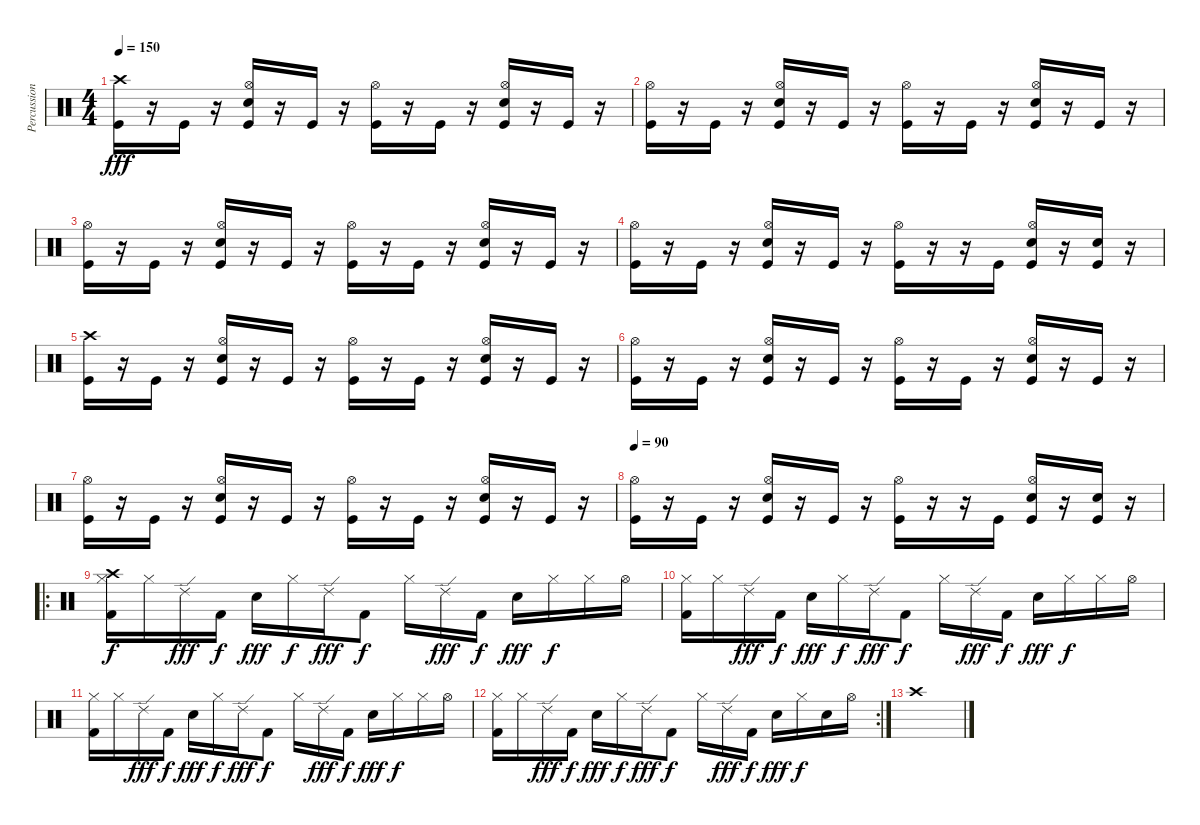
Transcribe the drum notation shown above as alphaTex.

\track ("Percussion" "Percussion") {instrument percussion}
\staff {score}
\articulation defaults
\ts (4 4)
\tempo 150
\clef neutral
\ks c
("Crash high (hit)" "Kick (hit)").16{dy fff} r.16 "Kick (hit)".16 r.16 ("Hi-Hat (open)" "Snare (hit) 2" "Kick (hit)").16 r.16 "Kick (hit)".16 r.16 ("Hi-Hat (open)" "Kick (hit)").16 r.16 "Kick (hit)".16 r.16 ("Hi-Hat (open)" "Snare (hit) 2" "Kick (hit)").16 r.16 "Kick (hit)".16 r.16 |
("Hi-Hat (open)" "Kick (hit)").16 r.16 "Kick (hit)".16 r.16 ("Hi-Hat (open)" "Snare (hit) 2" "Kick (hit)").16 r.16 "Kick (hit)".16 r.16 ("Hi-Hat (open)" "Kick (hit)").16 r.16 "Kick (hit)".16 r.16 ("Hi-Hat (open)" "Snare (hit) 2" "Kick (hit)").16 r.16 "Kick (hit)".16 r.16 |
("Hi-Hat (open)" "Kick (hit)").16 r.16 "Kick (hit)".16 r.16 ("Hi-Hat (open)" "Snare (hit) 2" "Kick (hit)").16 r.16 "Kick (hit)".16 r.16 ("Hi-Hat (open)" "Kick (hit)").16 r.16 "Kick (hit)".16 r.16 ("Hi-Hat (open)" "Snare (hit) 2" "Kick (hit)").16 r.16 "Kick (hit)".16 r.16 |
("Hi-Hat (open)" "Kick (hit)").16 r.16 "Kick (hit)".16 r.16 ("Hi-Hat (open)" "Snare (hit) 2" "Kick (hit)").16 r.16 "Kick (hit)".16 r.16 ("Hi-Hat (open)" "Kick (hit)").16 r.16 r.16 "Kick (hit)".16 ("Hi-Hat (open)" "Snare (hit) 2" "Kick (hit)").16 r.16 ("Snare (hit) 2" "Kick (hit)").16 r.16 |
("Crash high (hit)" "Kick (hit)").16 r.16 "Kick (hit)".16 r.16 ("Hi-Hat (open)" "Snare (hit) 2" "Kick (hit)").16 r.16 "Kick (hit)".16 r.16 ("Hi-Hat (open)" "Kick (hit)").16 r.16 "Kick (hit)".16 r.16 ("Hi-Hat (open)" "Snare (hit) 2" "Kick (hit)").16 r.16 "Kick (hit)".16 r.16 |
("Hi-Hat (open)" "Kick (hit)").16 r.16 "Kick (hit)".16 r.16 ("Hi-Hat (open)" "Snare (hit) 2" "Kick (hit)").16 r.16 "Kick (hit)".16 r.16 ("Hi-Hat (open)" "Kick (hit)").16 r.16 "Kick (hit)".16 r.16 ("Hi-Hat (open)" "Snare (hit) 2" "Kick (hit)").16 r.16 "Kick (hit)".16 r.16 |
("Hi-Hat (open)" "Kick (hit)").16 r.16 "Kick (hit)".16 r.16 ("Hi-Hat (open)" "Snare (hit) 2" "Kick (hit)").16 r.16 "Kick (hit)".16 r.16 ("Hi-Hat (open)" "Kick (hit)").16 r.16 "Kick (hit)".16 r.16 ("Hi-Hat (open)" "Snare (hit) 2" "Kick (hit)").16 r.16 "Kick (hit)".16 r.16 |
\tempo 90
("Hi-Hat (open)" "Kick (hit)").16 r.16 "Kick (hit)".16 r.16 ("Hi-Hat (open)" "Snare (hit) 2" "Kick (hit)").16 r.16 "Kick (hit)".16 r.16 ("Hi-Hat (open)" "Kick (hit)").16 r.16 r.16 "Kick (hit)".16 ("Hi-Hat (open)" "Snare (hit) 2" "Kick (hit)").16 r.16 ("Snare (hit) 2" "Kick (hit)").16 r.16 |
\ro
("Hi-Hat (closed)" "Kick (hit) 2" "Crash high (hit)").16{dy f} "Hi-Hat (closed)".16 "Ride (edge) 2".16{dy fff} "Kick (hit) 2".16{dy f} "Snare (hit) 2".16{dy fff} "Hi-Hat (closed)".16{dy f} "Ride (edge) 2".16{dy fff} "Kick (hit) 2".8{dy f} "Hi-Hat (closed)".16 "Ride (edge) 2".16{dy fff} "Kick (hit) 2".16{dy f} "Snare (hit) 2".16{dy fff} "Hi-Hat (closed)".16{dy f} "Hi-Hat (closed)".16 "Hi-Hat (open)".16 |
("Hi-Hat (closed)" "Kick (hit) 2").16 "Hi-Hat (closed)".16 "Ride (edge) 2".16{dy fff} "Kick (hit) 2".16{dy f} "Snare (hit) 2".16{dy fff} "Hi-Hat (closed)".16{dy f} "Ride (edge) 2".16{dy fff} "Kick (hit) 2".8{dy f} "Hi-Hat (closed)".16 "Ride (edge) 2".16{dy fff} "Kick (hit) 2".16{dy f} "Snare (hit) 2".16{dy fff} "Hi-Hat (closed)".16{dy f} "Hi-Hat (closed)".16 "Hi-Hat (open)".16 |
("Hi-Hat (closed)" "Kick (hit) 2").16 "Hi-Hat (closed)".16 "Ride (edge) 2".16{dy fff} "Kick (hit) 2".16{dy f} "Snare (hit) 2".16{dy fff} "Hi-Hat (closed)".16{dy f} "Ride (edge) 2".16{dy fff} "Kick (hit) 2".8{dy f} "Hi-Hat (closed)".16 "Ride (edge) 2".16{dy fff} "Kick (hit) 2".16{dy f} "Snare (hit) 2".16{dy fff} "Hi-Hat (closed)".16{dy f} "Hi-Hat (closed)".16 "Hi-Hat (open)".16 |
\rc 2
("Hi-Hat (closed)" "Kick (hit) 2").16 "Hi-Hat (closed)".16 "Ride (edge) 2".16{dy fff} "Kick (hit) 2".16{dy f} "Snare (hit) 2".16{dy fff} "Hi-Hat (closed)".16{dy f} "Ride (edge) 2".16{dy fff} "Kick (hit) 2".8{dy f} "Hi-Hat (closed)".16 "Ride (edge) 2".16{dy fff} "Kick (hit) 2".16{dy f} "Snare (hit) 2".16{dy fff} "Hi-Hat (closed)".16{dy f} "Snare (hit) 2".16 "Hi-Hat (open)".16 |
"Crash high (hit)".1
